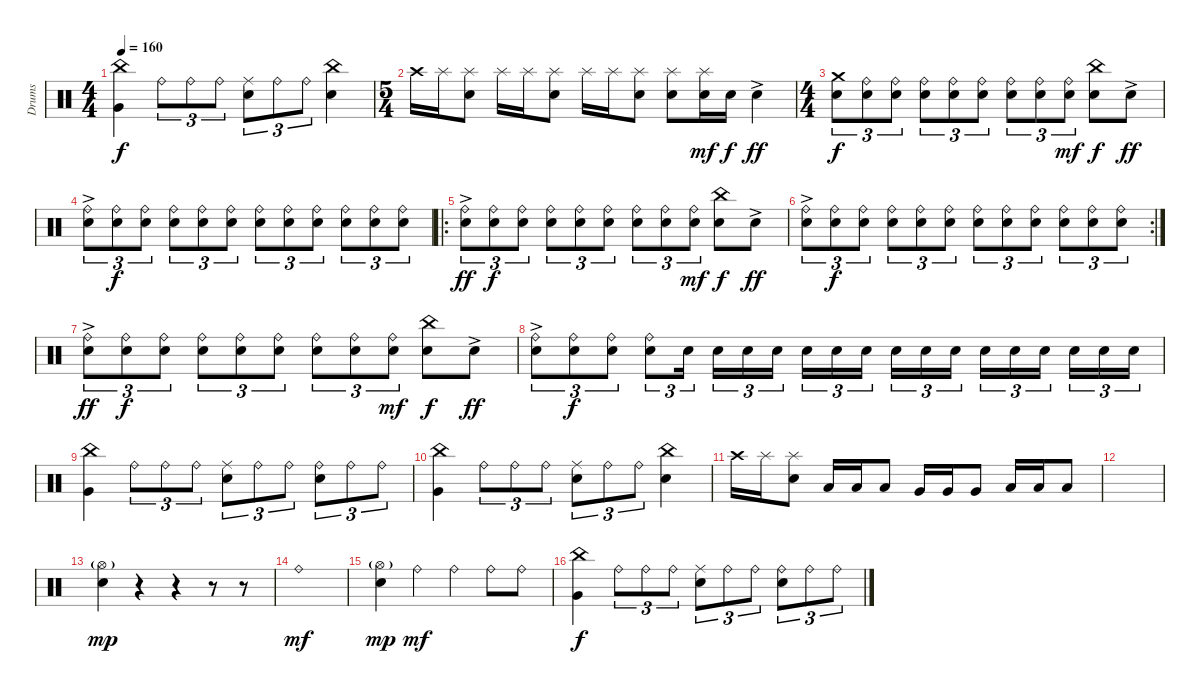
\track ("Drums" "Drums") {instrument percussion}
\staff {score}
\articulation defaults
\ts (4 4)
\tempo 160
\clef neutral
\ks c
("China (hit)" "Very Low Tom (hit)").4{dy f} "Ride (bell)".8{tu (3 2)} "Ride (bell)".8{tu (3 2)} "Ride (bell)".8{tu (3 2)} ("Ride (middle)" "Electric Snare (hit)").8{tu (3 2)} "Ride (bell)".8{tu (3 2)} "Ride (bell)".8{tu (3 2)} ("China (hit)" "Electric Snare (hit)").4 |
\ts (5 4)
"Crash high (hit)".16 "Splash (hit)".16 ("Splash (hit)" "Electric Snare (hit)").8 "Splash (hit)".16 "Splash (hit)".16 ("Splash (hit)" "Electric Snare (hit)").8 "Splash (hit)".16 "Splash (hit)".16 ("Splash (hit)" "Electric Snare (hit)").8 ("Splash (hit)" "Electric Snare (hit)").8 ("Splash (hit)" "Electric Snare (hit)").16{dy mf} "Electric Snare (hit)".16{dy f} "Electric Snare (hit)"{ac}.4{dy ff} |
\ts (4 4)
("Crash medium (hit)" "Electric Snare (hit)").8{tu (3 2) dy f} ("Ride (bell)" "Electric Snare (hit)").8{tu (3 2)} ("Ride (bell)" "Electric Snare (hit)").8{tu (3 2)} ("Ride (bell)" "Electric Snare (hit)").8{tu (3 2)} ("Ride (bell)" "Electric Snare (hit)").8{tu (3 2)} ("Ride (bell)" "Electric Snare (hit)").8{tu (3 2)} ("Ride (bell)" "Electric Snare (hit)").8{tu (3 2)} ("Ride (bell)" "Electric Snare (hit)").8{tu (3 2)} ("Ride (bell)" "Electric Snare (hit)").8{tu (3 2) dy mf} ("China (hit)" "Electric Snare (hit)").8{dy f} "Electric Snare (hit)"{ac}.8{dy ff} |
("Ride (bell)"{ac} "Electric Snare (hit)").8{tu (3 2)} ("Ride (bell)" "Electric Snare (hit)").8{tu (3 2) dy f} ("Ride (bell)" "Electric Snare (hit)").8{tu (3 2)} ("Ride (bell)" "Electric Snare (hit)").8{tu (3 2)} ("Ride (bell)" "Electric Snare (hit)").8{tu (3 2)} ("Ride (bell)" "Electric Snare (hit)").8{tu (3 2)} ("Ride (bell)" "Electric Snare (hit)").8{tu (3 2)} ("Ride (bell)" "Electric Snare (hit)").8{tu (3 2)} ("Ride (bell)" "Electric Snare (hit)").8{tu (3 2)} ("Ride (bell)" "Electric Snare (hit)").8{tu (3 2)} ("Ride (bell)" "Electric Snare (hit)").8{tu (3 2)} ("Ride (bell)" "Electric Snare (hit)").8{tu (3 2)} |
\ro
("Ride (bell)"{ac} "Electric Snare (hit)").8{tu (3 2) dy ff} ("Ride (bell)" "Electric Snare (hit)").8{tu (3 2) dy f} ("Ride (bell)" "Electric Snare (hit)").8{tu (3 2)} ("Ride (bell)" "Electric Snare (hit)").8{tu (3 2)} ("Ride (bell)" "Electric Snare (hit)").8{tu (3 2)} ("Ride (bell)" "Electric Snare (hit)").8{tu (3 2)} ("Ride (bell)" "Electric Snare (hit)").8{tu (3 2)} ("Ride (bell)" "Electric Snare (hit)").8{tu (3 2)} ("Ride (bell)" "Electric Snare (hit)").8{tu (3 2) dy mf} ("China (hit)" "Electric Snare (hit)").8{dy f} "Electric Snare (hit)"{ac}.8{dy ff} |
\rc 2
("Ride (bell)"{ac} "Electric Snare (hit)").8{tu (3 2)} ("Ride (bell)" "Electric Snare (hit)").8{tu (3 2) dy f} ("Ride (bell)" "Electric Snare (hit)").8{tu (3 2)} ("Ride (bell)" "Electric Snare (hit)").8{tu (3 2)} ("Ride (bell)" "Electric Snare (hit)").8{tu (3 2)} ("Ride (bell)" "Electric Snare (hit)").8{tu (3 2)} ("Ride (bell)" "Electric Snare (hit)").8{tu (3 2)} ("Ride (bell)" "Electric Snare (hit)").8{tu (3 2)} ("Ride (bell)" "Electric Snare (hit)").8{tu (3 2)} ("Ride (bell)" "Electric Snare (hit)").8{tu (3 2)} ("Ride (bell)" "Electric Snare (hit)").8{tu (3 2)} ("Ride (bell)" "Electric Snare (hit)").8{tu (3 2)} |
("Ride (bell)"{ac} "Electric Snare (hit)").8{tu (3 2) dy ff} ("Ride (bell)" "Electric Snare (hit)").8{tu (3 2) dy f} ("Ride (bell)" "Electric Snare (hit)").8{tu (3 2)} ("Ride (bell)" "Electric Snare (hit)").8{tu (3 2)} ("Ride (bell)" "Electric Snare (hit)").8{tu (3 2)} ("Ride (bell)" "Electric Snare (hit)").8{tu (3 2)} ("Ride (bell)" "Electric Snare (hit)").8{tu (3 2)} ("Ride (bell)" "Electric Snare (hit)").8{tu (3 2)} ("Ride (bell)" "Electric Snare (hit)").8{tu (3 2) dy mf} ("China (hit)" "Electric Snare (hit)").8{dy f} "Electric Snare (hit)"{ac}.8{dy ff} |
("Ride (bell)"{ac} "Electric Snare (hit)").8{tu (3 2)} ("Ride (bell)" "Electric Snare (hit)").8{tu (3 2) dy f} ("Ride (bell)" "Electric Snare (hit)").8{tu (3 2)} ("Ride (bell)" "Electric Snare (hit)").8{tu (3 2)} "Electric Snare (hit)".16{tu (3 2) beam splitsecondary} "Electric Snare (hit)".16{tu (3 2)} "Electric Snare (hit)".16{tu (3 2)} "Electric Snare (hit)".16{tu (3 2)} "Electric Snare (hit)".16{tu (3 2)} "Electric Snare (hit)".16{tu (3 2)} "Electric Snare (hit)".16{tu (3 2) beam splitsecondary} "Electric Snare (hit)".16{tu (3 2)} "Electric Snare (hit)".16{tu (3 2)} "Electric Snare (hit)".16{tu (3 2)} "Electric Snare (hit)".16{tu (3 2)} "Electric Snare (hit)".16{tu (3 2)} "Electric Snare (hit)".16{tu (3 2) beam splitsecondary} "Electric Snare (hit)".16{tu (3 2)} "Electric Snare (hit)".16{tu (3 2)} "Electric Snare (hit)".16{tu (3 2)} |
("China (hit)" "Very Low Tom (hit)").4 "Ride (bell)".8{tu (3 2)} "Ride (bell)".8{tu (3 2)} "Ride (bell)".8{tu (3 2)} ("Ride (middle)" "Electric Snare (hit)").8{tu (3 2)} "Ride (bell)".8{tu (3 2)} "Ride (bell)".8{tu (3 2)} ("Ride (bell)" "Electric Snare (hit)").8{tu (3 2)} "Ride (bell)".8{tu (3 2)} "Ride (bell)".8{tu (3 2)} |
("China (hit)" "Very Low Tom (hit)").4 "Ride (bell)".8{tu (3 2)} "Ride (bell)".8{tu (3 2)} "Ride (bell)".8{tu (3 2)} ("Ride (middle)" "Electric Snare (hit)").8{tu (3 2)} "Ride (bell)".8{tu (3 2)} "Ride (bell)".8{tu (3 2)} ("China (hit)" "Electric Snare (hit)").4 |
"Crash high (hit)".16 "Splash (hit)".16 ("Splash (hit)" "Electric Snare (hit)").8 "Low Tom (hit)".16 "Low Tom (hit)".16 "Low Tom (hit)".8 "Very Low Tom (hit)".16 "Very Low Tom (hit)".16 "Very Low Tom (hit)".8 "Low Floor Tom (hit)".16 "Low Floor Tom (hit)".16 "Low Floor Tom (hit)".8 |
|
("Hi-Hat (open)"{g} "Electric Snare (hit)").4{dy mp} r.4 r.4 r.8 r.8 |
"Ride (bell)".1{dy mf} |
("Hi-Hat (open)"{g} "Electric Snare (hit)").4{dy mp} "Ride (bell)".4{dy mf} "Ride (bell)".4 "Ride (bell)".8 "Ride (bell)".8 |
("China (hit)" "Very Low Tom (hit)").4{dy f} "Ride (bell)".8{tu (3 2)} "Ride (bell)".8{tu (3 2)} "Ride (bell)".8{tu (3 2)} ("Ride (middle)" "Electric Snare (hit)").8{tu (3 2)} "Ride (bell)".8{tu (3 2)} "Ride (bell)".8{tu (3 2)} ("Ride (bell)" "Electric Snare (hit)").8{tu (3 2)} "Ride (bell)".8{tu (3 2)} "Ride (bell)".8{tu (3 2)}
